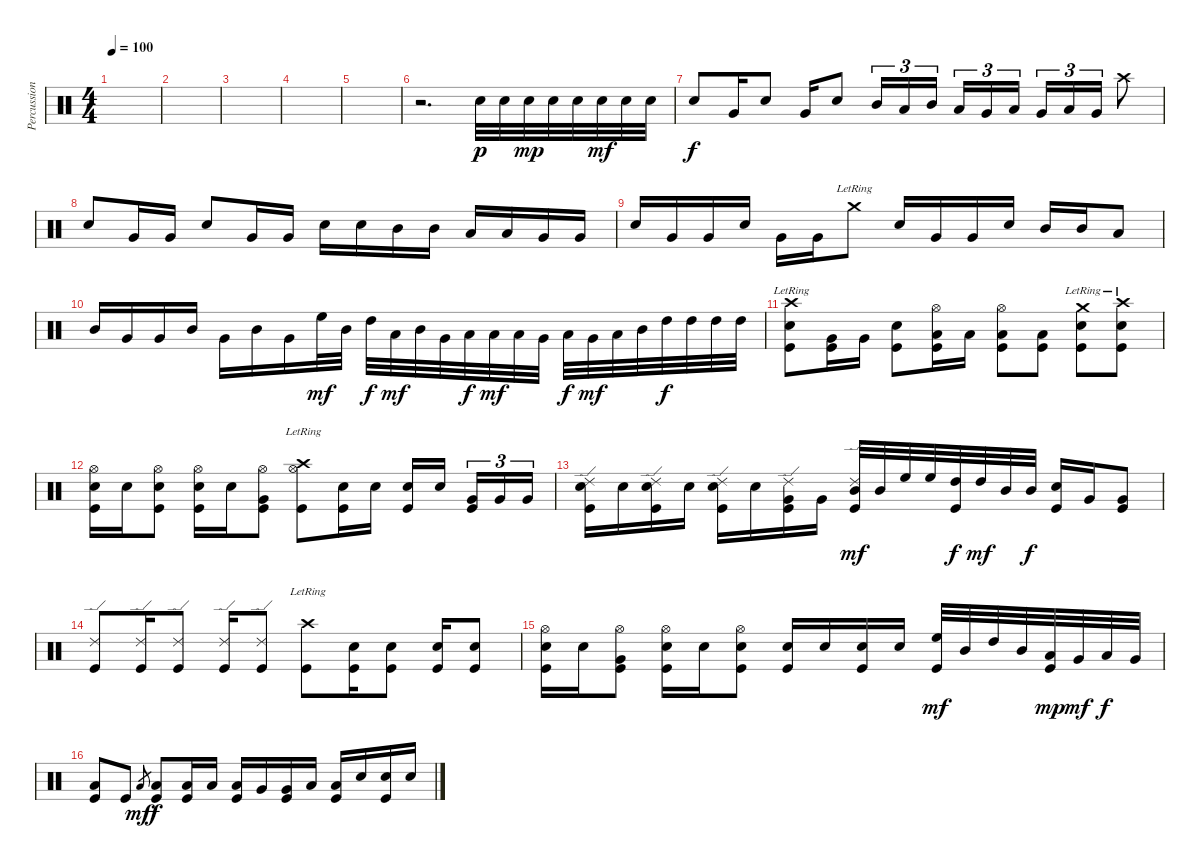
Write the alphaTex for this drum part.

\track ("Percussions" "Percussion") {instrument percussion}
\staff {score}
\articulation defaults
\ts (4 4)
\tempo 100
\clef neutral
\ks c
|
|
|
|
|
r.2{d} "Snare (hit) 2".32{dy p} "Snare (hit) 2".32 "Snare (hit) 2".32{dy mp} "Snare (hit) 2".32 "Snare (hit) 2".32 "Snare (hit) 2".32{dy mf} "Snare (hit) 2".32 "Snare (hit) 2".32 |
"Snare (hit) 2".8{dy f} "Very Low Tom (hit)".16 "Snare (hit) 2".8 "Very Low Tom (hit)".16 "Snare (hit) 2".8 "Mid Tom (hit)".16{tu (3 2)} "Low Tom (hit)".16{tu (3 2)} "Mid Tom (hit)".16{tu (3 2)} "Low Tom (hit)".16{tu (3 2)} "Very Low Tom (hit)".16{tu (3 2)} "Low Tom (hit)".16{tu (3 2)} "Very Low Tom (hit)".16{tu (3 2)} "Low Floor Tom (hit)".16{tu (3 2)} "Very Low Tom (hit)".16{tu (3 2)} "Crash high (hit)".8 |
"Snare (hit) 2".8 "Very Low Tom (hit)".16 "Very Low Tom (hit)".16 "Snare (hit) 2".8 "Very Low Tom (hit)".16 "Very Low Tom (hit)".16 "Snare (hit) 2".16 "Snare (hit) 2".16 "Mid Tom (hit)".16 "Mid Tom (hit)".16 "Low Tom (hit)".16 "Low Tom (hit)".16 "Very Low Tom (hit)".16 "Very Low Tom (hit)".16 |
"Snare (hit) 2".16 "Very Low Tom (hit)".16 "Very Low Tom (hit)".16 "Snare (hit) 2".16 "Very Low Tom (hit)".16 "Very Low Tom (hit)".16 "Crash medium (hit)"{lr}.8 "Snare (hit) 2".16 "Very Low Tom (hit)".16 "Very Low Tom (hit)".16 "Snare (hit) 2".16 "Mid Tom (hit)".16 "Mid Tom (hit)".16 "Low Tom (hit)".8 |
"Mid Tom (hit)".16 "Very Low Tom (hit)".16 "Very Low Tom (hit)".16 "Mid Tom (hit)".16 "Very Low Tom (hit)".16 "Mid Tom (hit)".16 "Very Low Tom (hit)".16 "High Floor Tom (hit)".32{dy mf} "Mid Tom (hit)".32 "High Tom (hit)".32{dy f} "Low Tom (hit)".32{dy mf} "Mid Tom (hit)".32 "Very Low Tom (hit)".32 "Low Tom (hit)".32{dy f} "Low Floor Tom (hit)".32{dy mf} "Low Tom (hit)".32 "Very Low Tom (hit)".32 "Low Tom (hit)".32{dy f} "Very Low Tom (hit)".32{dy mf} "Low Tom (hit)".32 "Mid Tom (hit)".32 "High Tom (hit)".32{dy f} "High Tom (hit)".32 "High Tom (hit)".32 "High Tom (hit)".32 |
("Electric Snare (hit)" "Crash high (hit)"{lr} "Kick (hit)").8 ("Very Low Tom (hit)" "Kick (hit)").16 "Very Low Tom (hit)".16 ("Snare (hit) 2" "Kick (hit)").8 ("Hi-Hat (open)" "Low Tom (hit)" "Kick (hit)").16 "Low Tom (hit)".16 ("Hi-Hat (open)" "Low Tom (hit)" "Kick (hit)").8 ("Low Tom (hit)" "Kick (hit)").8 ("Crash medium (hit)"{lr} "Electric Snare (hit)" "Kick (hit)").8 ("Electric Snare (hit)" "Crash high (hit)"{lr} "Kick (hit)").8 |
("Hi-Hat (open)" "Electric Snare (hit)" "Kick (hit)").16 "Snare (hit) 2".16 ("Hi-Hat (open)" "Snare (hit) 2" "Kick (hit)").8 ("Hi-Hat (open)" "Electric Snare (hit)" "Kick (hit)").16 "Snare (hit) 2".16 ("Hi-Hat (open)" "Very Low Tom (hit)" "Kick (hit)").8 ("Hi-Hat (open)" "Crash high (hit)"{lr} "Kick (hit)").8 ("Electric Snare (hit)" "Kick (hit)").16 "Electric Snare (hit)".16 ("Snare (hit) 2" "Kick (hit)").16 "Snare (hit) 2".16 ("Very Low Tom (hit)" "Kick (hit)").16{tu (3 2)} "Very Low Tom (hit)".16{tu (3 2)} "Very Low Tom (hit)".16{tu (3 2)} |
("Ride (edge) 2" "Electric Snare (hit)" "Kick (hit)").16 "Snare (hit) 2".16 ("Ride (edge) 2" "Electric Snare (hit)" "Kick (hit)").16 "Snare (hit) 2".16 ("Ride (edge) 2" "Electric Snare (hit)" "Kick (hit)").16 "Electric Snare (hit)".16 ("Ride (edge) 2" "Very Low Tom (hit)" "Kick (hit)").16 "Very Low Tom (hit)".16 ("Ride (edge) 2" "Mid Tom (hit)" "Kick (hit)").32{dy mf} "Mid Tom (hit)".32 "High Floor Tom (hit)".32 "High Floor Tom (hit)".32 ("High Tom (hit)" "Kick (hit)").32{dy f} "High Tom (hit)".32{dy mf} "Mid Tom (hit)".32 "Mid Tom (hit)".32{dy f} ("Electric Snare (hit)" "Kick (hit)").16 "Very Low Tom (hit)".16 ("Very Low Tom (hit)" "Kick (hit)").8 |
("Ride (edge) 2" "Kick (hit)").8 ("Ride (edge) 2" "Kick (hit)").16 ("Ride (edge) 2" "Kick (hit)").8 ("Ride (edge) 2" "Kick (hit)").16 ("Ride (edge) 2" "Kick (hit)").8 ("Crash high (hit)"{lr} "Kick (hit)").8 ("Electric Snare (hit)" "Kick (hit)").16 ("Snare (hit) 2" "Kick (hit)").8 ("Electric Snare (hit)" "Kick (hit)").16 ("Snare (hit) 2" "Kick (hit)").8 |
("Hi-Hat (open)" "Electric Snare (hit)" "Kick (hit)").16 "Snare (hit) 2".16 ("Hi-Hat (open)" "Very Low Tom (hit)" "Kick (hit)").8 ("Hi-Hat (open)" "Electric Snare (hit)" "Kick (hit)").16 "Snare (hit) 2".16 ("Hi-Hat (open)" "Snare (hit) 2" "Kick (hit)").8 ("Electric Snare (hit)" "Kick (hit)").16 "Snare (hit) 2".16 ("Electric Snare (hit)" "Kick (hit)").16 "Snare (hit) 2".16 ("High Floor Tom (hit)" "Kick (hit)").32{dy mf} "Mid Tom (hit)".32 "High Tom (hit)".32 "Mid Tom (hit)".32 ("Low Tom (hit)" "Kick (hit)").32{dy mp} "Very Low Tom (hit)".32{dy mf} "Low Tom (hit)".32{dy f} "Very Low Tom (hit)".32 |
("Low Floor Tom (hit)" "Kick (hit)").8 "Kick (hit)".8 "Low Floor Tom (hit)".8{gr dy mf} ("Low Floor Tom (hit)" "Kick (hit)").8{dy f} ("Low Tom (hit)" "Kick (hit)").16 "Low Tom (hit)".16 ("Low Tom (hit)" "Kick (hit)").16 "Very Low Tom (hit)".16 ("Very Low Tom (hit)" "Kick (hit)").16 "Low Floor Tom (hit)".16 ("Low Floor Tom (hit)" "Kick (hit)").16 "Snare (hit) 2".16 ("Snare (hit) 2" "Kick (hit)").16 "Snare (hit) 2".16
